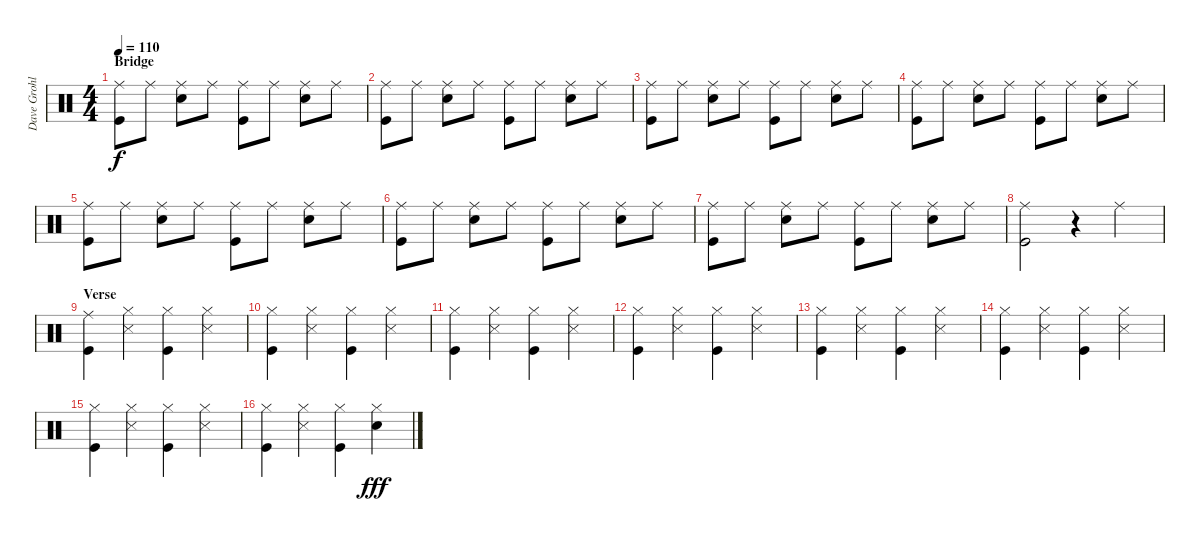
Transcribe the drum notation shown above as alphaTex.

\track ("Dave Grohl" "Dave Grohl") {instrument percussion}
\staff {score}
\articulation defaults
\ts (4 4)
\section ("" "Bridge")
\tempo 110
\clef neutral
\ks c
("Ride (middle)" "Kick (hit)").8{dy f} "Ride (middle)".8 ("Ride (middle)" "Electric Snare (hit)").8 "Ride (middle)".8 ("Ride (middle)" "Kick (hit)").8 "Ride (middle)".8 ("Ride (middle)" "Electric Snare (hit)").8 "Ride (middle)".8 |
("Ride (middle)" "Kick (hit)").8 "Ride (middle)".8 ("Ride (middle)" "Electric Snare (hit)").8 "Ride (middle)".8 ("Ride (middle)" "Kick (hit)").8 "Ride (middle)".8 ("Ride (middle)" "Electric Snare (hit)").8 "Ride (middle)".8 |
("Ride (middle)" "Kick (hit)").8 "Ride (middle)".8 ("Ride (middle)" "Electric Snare (hit)").8 "Ride (middle)".8 ("Ride (middle)" "Kick (hit)").8 "Ride (middle)".8 ("Ride (middle)" "Electric Snare (hit)").8 "Ride (middle)".8 |
("Ride (middle)" "Kick (hit)").8 "Ride (middle)".8 ("Ride (middle)" "Electric Snare (hit)").8 "Ride (middle)".8 ("Ride (middle)" "Kick (hit)").8 "Ride (middle)".8 ("Ride (middle)" "Electric Snare (hit)").8 "Ride (middle)".8 |
("Ride (middle)" "Kick (hit)").8 "Ride (middle)".8 ("Ride (middle)" "Electric Snare (hit)").8 "Ride (middle)".8 ("Ride (middle)" "Kick (hit)").8 "Ride (middle)".8 ("Ride (middle)" "Electric Snare (hit)").8 "Ride (middle)".8 |
("Ride (middle)" "Kick (hit)").8 "Ride (middle)".8 ("Ride (middle)" "Electric Snare (hit)").8 "Ride (middle)".8 ("Ride (middle)" "Kick (hit)").8 "Ride (middle)".8 ("Ride (middle)" "Electric Snare (hit)").8 "Ride (middle)".8 |
("Ride (middle)" "Kick (hit)").8 "Ride (middle)".8 ("Ride (middle)" "Electric Snare (hit)").8 "Ride (middle)".8 ("Ride (middle)" "Kick (hit)").8 "Ride (middle)".8 ("Ride (middle)" "Electric Snare (hit)").8 "Ride (middle)".8 |
("Ride (middle)" "Kick (hit)").2 r.4 "Ride (middle)".4 |
\section ("" "Verse")
("Ride (middle)" "Kick (hit)").4 ("Hi-Hat (closed)" "Snare (side stick) 3").4 ("Hi-Hat (closed)" "Kick (hit)").4 ("Hi-Hat (closed)" "Snare (side stick) 3").4 |
("Hi-Hat (closed)" "Kick (hit)").4 ("Hi-Hat (closed)" "Snare (side stick) 3").4 ("Hi-Hat (closed)" "Kick (hit)").4 ("Hi-Hat (closed)" "Snare (side stick) 3").4 |
("Hi-Hat (closed)" "Kick (hit)").4 ("Hi-Hat (closed)" "Snare (side stick) 3").4 ("Hi-Hat (closed)" "Kick (hit)").4 ("Hi-Hat (closed)" "Snare (side stick) 3").4 |
("Hi-Hat (closed)" "Kick (hit)").4 ("Hi-Hat (closed)" "Snare (side stick) 3").4 ("Hi-Hat (closed)" "Kick (hit)").4 ("Hi-Hat (closed)" "Snare (side stick) 3").4 |
("Hi-Hat (closed)" "Kick (hit)").4 ("Hi-Hat (closed)" "Snare (side stick) 3").4 ("Hi-Hat (closed)" "Kick (hit)").4 ("Hi-Hat (closed)" "Snare (side stick) 3").4 |
("Hi-Hat (closed)" "Kick (hit)").4 ("Hi-Hat (closed)" "Snare (side stick) 3").4 ("Hi-Hat (closed)" "Kick (hit)").4 ("Hi-Hat (closed)" "Snare (side stick) 3").4 |
("Hi-Hat (closed)" "Kick (hit)").4 ("Hi-Hat (closed)" "Snare (side stick) 3").4 ("Hi-Hat (closed)" "Kick (hit)").4 ("Hi-Hat (closed)" "Snare (side stick) 3").4 |
("Hi-Hat (closed)" "Kick (hit)").4 ("Hi-Hat (closed)" "Snare (side stick) 3").4 ("Hi-Hat (closed)" "Kick (hit)").4 ("Hi-Hat (closed)" "Electric Snare (hit)").4{dy fff}
